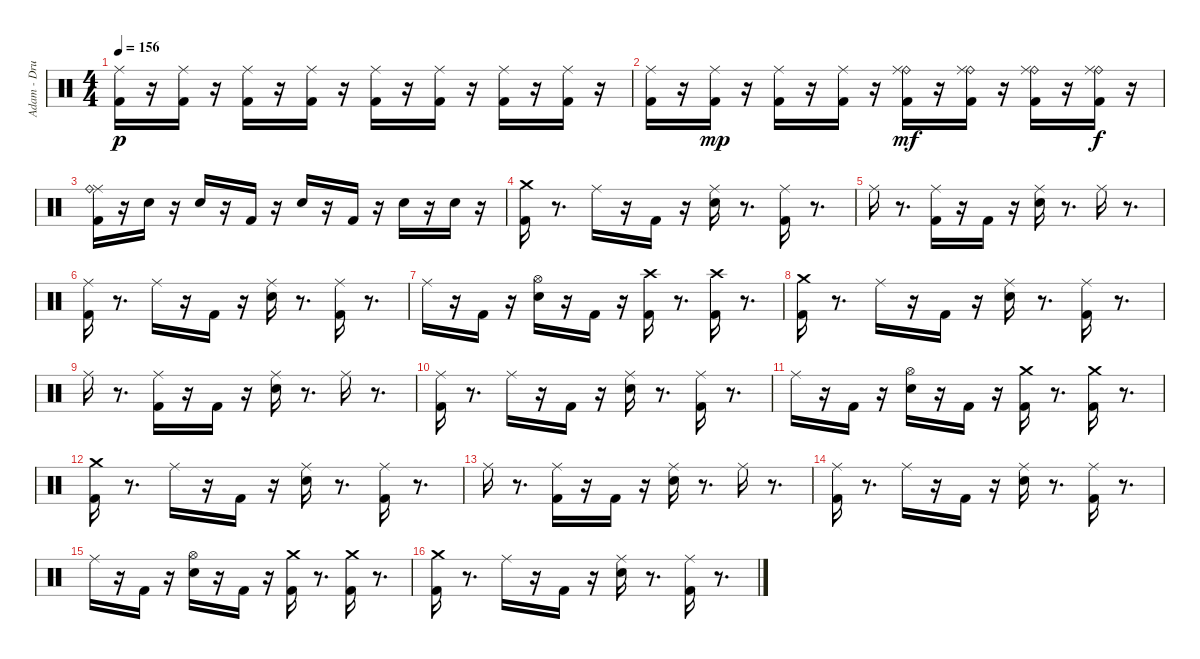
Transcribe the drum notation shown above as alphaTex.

\track ("Adam - Drums" "Adam - Dru") {instrument percussion}
\staff {score}
\articulation defaults
\ts (4 4)
\tempo 156
\clef neutral
\ks c
("Ride (middle)" "Kick (hit) 2").16{dy p} r.16 ("Ride (middle)" "Kick (hit) 2").16 r.16 ("Ride (middle)" "Kick (hit) 2").16 r.16 ("Ride (middle)" "Kick (hit) 2").16 r.16 ("Kick (hit) 2" "Ride (middle)").16 r.16 ("Ride (middle)" "Kick (hit) 2").16 r.16 ("Ride (middle)" "Kick (hit) 2").16 r.16 ("Kick (hit) 2" "Ride (middle)").16 r.16 |
("Ride (middle)" "Kick (hit) 2").16 r.16 ("Ride (middle)" "Kick (hit) 2").16{dy mp} r.16 ("Ride (middle)" "Kick (hit) 2").16 r.16 ("Ride (middle)" "Kick (hit) 2").16 r.16 ("Ride (bell)" "Ride (middle)" "Kick (hit) 2").16{dy mf} r.16 ("Ride (bell)" "Ride (middle)" "Kick (hit) 2").16 r.16 ("Ride (bell)" "Ride (middle)" "Kick (hit) 2").16 r.16 ("Ride (bell)" "Ride (middle)" "Kick (hit) 2").16{dy f} r.16 |
("Kick (hit) 2" "Ride (middle)" "Ride (bell)").16 r.16 "Snare (hit) 2".16 r.16 "Snare (hit) 2".16 r.16 "Kick (hit) 2".16 r.16 "Snare (hit) 2".16 r.16 "Kick (hit) 2".16 r.16 "Snare (hit) 2".16 r.16 "Snare (hit) 2".16 r.16 |
("Kick (hit) 2" "Crash medium (hit)").16 r.8{d} "Ride (middle)".16 r.16 "Kick (hit) 2".16 r.16 ("Ride (middle)" "Snare (hit) 2").16 r.8{d} ("Kick (hit) 2" "Ride (middle)").16 r.8{d} |
"Ride (middle)".16 r.8{d} ("Kick (hit) 2" "Ride (middle)").16 r.16 "Kick (hit) 2".16 r.16 ("Snare (hit) 2" "Ride (middle)").16 r.8{d} "Ride (middle)".16 r.8{d} |
("Kick (hit) 2" "Ride (middle)").16 r.8{d} "Ride (middle)".16 r.16 "Kick (hit) 2".16 r.16 ("Snare (hit) 2" "Ride (middle)").16 r.8{d} ("Kick (hit) 2" "Ride (middle)").16 r.8{d} |
"Ride (middle)".16 r.16 "Kick (hit) 2".16 r.16 ("Hi-Hat (open)" "Snare (hit) 2").16 r.16 "Kick (hit) 2".16 r.16 ("Kick (hit) 2" "Crash high (hit)").16 r.8{d} ("Crash high (hit)" "Kick (hit) 2").16 r.8{d} |
("Kick (hit) 2" "Crash medium (hit)").16 r.8{d} "Ride (middle)".16 r.16 "Kick (hit) 2".16 r.16 ("Ride (middle)" "Snare (hit) 2").16 r.8{d} ("Kick (hit) 2" "Ride (middle)").16 r.8{d} |
"Ride (middle)".16 r.8{d} ("Kick (hit) 2" "Ride (middle)").16 r.16 "Kick (hit) 2".16 r.16 ("Snare (hit) 2" "Ride (middle)").16 r.8{d} "Ride (middle)".16 r.8{d} |
("Kick (hit) 2" "Ride (middle)").16 r.8{d} "Ride (middle)".16 r.16 "Kick (hit) 2".16 r.16 ("Snare (hit) 2" "Ride (middle)").16 r.8{d} ("Kick (hit) 2" "Ride (middle)").16 r.8{d} |
"Ride (middle)".16 r.16 "Kick (hit) 2".16 r.16 ("Snare (hit) 2" "Hi-Hat (open)").16 r.16 "Kick (hit) 2".16 r.16 ("Crash medium (hit)" "Kick (hit) 2").16 r.8{d} ("Crash medium (hit)" "Kick (hit) 2").16 r.8{d} |
("Kick (hit) 2" "Crash medium (hit)").16 r.8{d} "Ride (middle)".16 r.16 "Kick (hit) 2".16 r.16 ("Ride (middle)" "Snare (hit) 2").16 r.8{d} ("Kick (hit) 2" "Ride (middle)").16 r.8{d} |
"Ride (middle)".16 r.8{d} ("Kick (hit) 2" "Ride (middle)").16 r.16 "Kick (hit) 2".16 r.16 ("Snare (hit) 2" "Ride (middle)").16 r.8{d} "Ride (middle)".16 r.8{d} |
("Kick (hit) 2" "Ride (middle)").16 r.8{d} "Ride (middle)".16 r.16 "Kick (hit) 2".16 r.16 ("Snare (hit) 2" "Ride (middle)").16 r.8{d} ("Kick (hit) 2" "Ride (middle)").16 r.8{d} |
"Ride (middle)".16 r.16 "Kick (hit) 2".16 r.16 ("Snare (hit) 2" "Hi-Hat (open)").16 r.16 "Kick (hit) 2".16 r.16 ("Crash medium (hit)" "Kick (hit) 2").16 r.8{d} ("Crash medium (hit)" "Kick (hit) 2").16 r.8{d} |
("Kick (hit) 2" "Crash medium (hit)").16 r.8{d} "Ride (middle)".16 r.16 "Kick (hit) 2".16 r.16 ("Ride (middle)" "Snare (hit) 2").16 r.8{d} ("Kick (hit) 2" "Ride (middle)").16 r.8{d}
